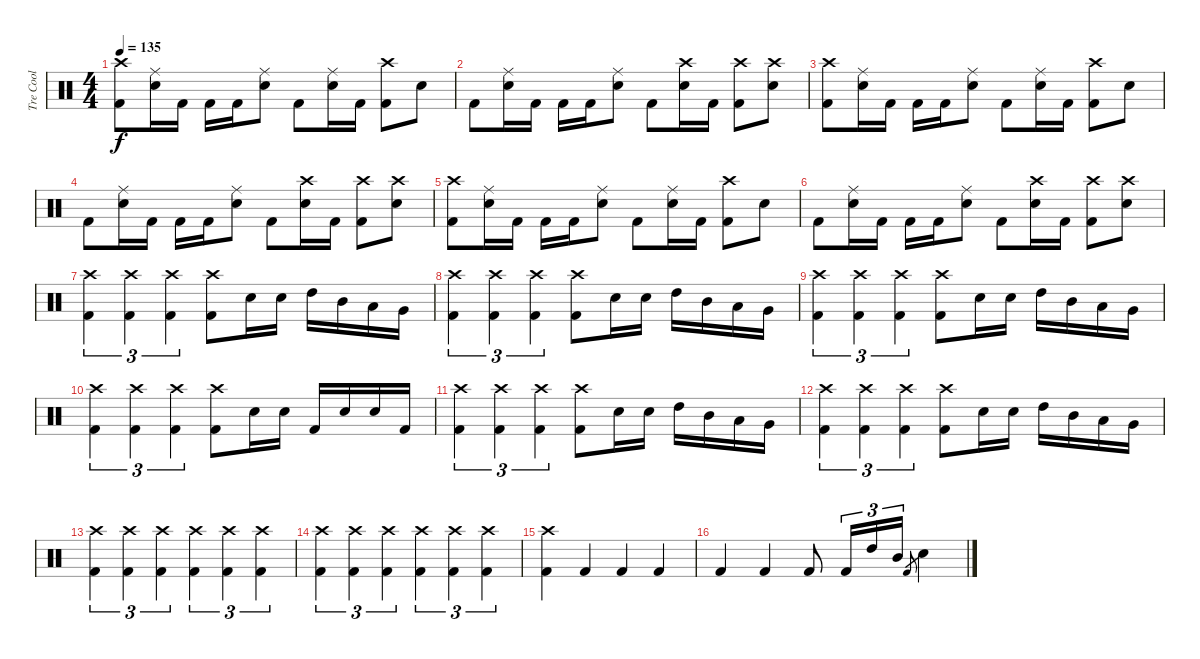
\track ("Tre Cool" "Tre Cool") {instrument percussion}
\staff {score}
\articulation defaults
\ts (4 4)
\tempo 135
\clef neutral
\ks c
("Kick (hit) 2" "Crash high (hit)").8{dy f} ("Electric Snare (hit)" "Ride (middle)").16 "Kick (hit) 2".16 "Kick (hit) 2".16 "Kick (hit) 2".16 ("Electric Snare (hit)" "Ride (middle)").8 "Kick (hit) 2".8 ("Electric Snare (hit)" "Ride (middle)").16 "Kick (hit) 2".16 ("Kick (hit) 2" "Crash high (hit)").8 "Electric Snare (hit)".8 |
"Kick (hit) 2".8 ("Electric Snare (hit)" "Ride (middle)").16 "Kick (hit) 2".16 "Kick (hit) 2".16 "Kick (hit) 2".16 ("Electric Snare (hit)" "Ride (middle)").8 "Kick (hit) 2".8 ("Electric Snare (hit)" "Crash high (hit)").16 "Kick (hit) 2".16 ("Kick (hit) 2" "Crash high (hit)").8 ("Electric Snare (hit)" "Crash high (hit)").8 |
("Kick (hit) 2" "Crash high (hit)").8 ("Electric Snare (hit)" "Ride (middle)").16 "Kick (hit) 2".16 "Kick (hit) 2".16 "Kick (hit) 2".16 ("Electric Snare (hit)" "Ride (middle)").8 "Kick (hit) 2".8 ("Electric Snare (hit)" "Ride (middle)").16 "Kick (hit) 2".16 ("Kick (hit) 2" "Crash high (hit)").8 "Electric Snare (hit)".8 |
"Kick (hit) 2".8 ("Electric Snare (hit)" "Ride (middle)").16 "Kick (hit) 2".16 "Kick (hit) 2".16 "Kick (hit) 2".16 ("Electric Snare (hit)" "Ride (middle)").8 "Kick (hit) 2".8 ("Electric Snare (hit)" "Crash high (hit)").16 "Kick (hit) 2".16 ("Kick (hit) 2" "Crash high (hit)").8 ("Electric Snare (hit)" "Crash high (hit)").8 |
("Kick (hit) 2" "Crash high (hit)").8 ("Electric Snare (hit)" "Ride (middle)").16 "Kick (hit) 2".16 "Kick (hit) 2".16 "Kick (hit) 2".16 ("Electric Snare (hit)" "Ride (middle)").8 "Kick (hit) 2".8 ("Electric Snare (hit)" "Ride (middle)").16 "Kick (hit) 2".16 ("Kick (hit) 2" "Crash high (hit)").8 "Electric Snare (hit)".8 |
"Kick (hit) 2".8 ("Electric Snare (hit)" "Ride (middle)").16 "Kick (hit) 2".16 "Kick (hit) 2".16 "Kick (hit) 2".16 ("Electric Snare (hit)" "Ride (middle)").8 "Kick (hit) 2".8 ("Electric Snare (hit)" "Crash high (hit)").16 "Kick (hit) 2".16 ("Kick (hit) 2" "Crash high (hit)").8 ("Electric Snare (hit)" "Crash high (hit)").8 |
("Kick (hit) 2" "Crash high (hit)").4{tu (3 2)} ("Kick (hit) 2" "Crash high (hit)").4{tu (3 2)} ("Kick (hit) 2" "Crash high (hit)").4{tu (3 2)} ("Kick (hit) 2" "Crash high (hit)").8 "Electric Snare (hit)".16 "Electric Snare (hit)".16 "High Tom (hit)".16 "Mid Tom (hit)".16 "Low Tom (hit)".16 "Very Low Tom (hit)".16 |
("Kick (hit) 2" "Crash high (hit)").4{tu (3 2)} ("Kick (hit) 2" "Crash high (hit)").4{tu (3 2)} ("Kick (hit) 2" "Crash high (hit)").4{tu (3 2)} ("Kick (hit) 2" "Crash high (hit)").8 "Electric Snare (hit)".16 "Electric Snare (hit)".16 "High Tom (hit)".16 "Mid Tom (hit)".16 "Low Tom (hit)".16 "Very Low Tom (hit)".16 |
("Kick (hit) 2" "Crash high (hit)").4{tu (3 2)} ("Kick (hit) 2" "Crash high (hit)").4{tu (3 2)} ("Kick (hit) 2" "Crash high (hit)").4{tu (3 2)} ("Kick (hit) 2" "Crash high (hit)").8 "Electric Snare (hit)".16 "Electric Snare (hit)".16 "High Tom (hit)".16 "Mid Tom (hit)".16 "Low Tom (hit)".16 "Very Low Tom (hit)".16 |
("Kick (hit) 2" "Crash high (hit)").4{tu (3 2)} ("Kick (hit) 2" "Crash high (hit)").4{tu (3 2)} ("Kick (hit) 2" "Crash high (hit)").4{tu (3 2)} ("Kick (hit) 2" "Crash high (hit)").8 "Electric Snare (hit)".16 "Electric Snare (hit)".16 "Kick (hit) 2".16 "Electric Snare (hit)".16 "Electric Snare (hit)".16 "Kick (hit) 2".16 |
("Kick (hit) 2" "Crash high (hit)").4{tu (3 2)} ("Kick (hit) 2" "Crash high (hit)").4{tu (3 2)} ("Kick (hit) 2" "Crash high (hit)").4{tu (3 2)} ("Kick (hit) 2" "Crash high (hit)").8 "Electric Snare (hit)".16 "Electric Snare (hit)".16 "High Tom (hit)".16 "Mid Tom (hit)".16 "Low Tom (hit)".16 "Very Low Tom (hit)".16 |
("Kick (hit) 2" "Crash high (hit)").4{tu (3 2)} ("Kick (hit) 2" "Crash high (hit)").4{tu (3 2)} ("Kick (hit) 2" "Crash high (hit)").4{tu (3 2)} ("Kick (hit) 2" "Crash high (hit)").8 "Electric Snare (hit)".16 "Electric Snare (hit)".16 "High Tom (hit)".16 "Mid Tom (hit)".16 "Low Tom (hit)".16 "Very Low Tom (hit)".16 |
("Kick (hit) 2" "Crash high (hit)").4{tu (3 2)} ("Kick (hit) 2" "Crash high (hit)").4{tu (3 2)} ("Kick (hit) 2" "Crash high (hit)").4{tu (3 2)} ("Kick (hit) 2" "Crash high (hit)").4{tu (3 2)} ("Kick (hit) 2" "Crash high (hit)").4{tu (3 2)} ("Kick (hit) 2" "Crash high (hit)").4{tu (3 2)} |
("Kick (hit) 2" "Crash high (hit)").4{tu (3 2)} ("Kick (hit) 2" "Crash high (hit)").4{tu (3 2)} ("Kick (hit) 2" "Crash high (hit)").4{tu (3 2)} ("Kick (hit) 2" "Crash high (hit)").4{tu (3 2)} ("Kick (hit) 2" "Crash high (hit)").4{tu (3 2)} ("Kick (hit) 2" "Crash high (hit)").4{tu (3 2)} |
("Kick (hit) 2" "Crash high (hit)").4 "Kick (hit) 2".4 "Kick (hit) 2".4 "Kick (hit) 2".4 |
"Kick (hit) 2".4 "Kick (hit) 2".4 "Kick (hit) 2".8 "Kick (hit) 2".16{tu (3 2)} "High Tom (hit)".16{tu (3 2)} "Mid Tom (hit)".16{tu (3 2)} "Kick (hit) 2".8{gr} "Electric Snare (hit)".4
